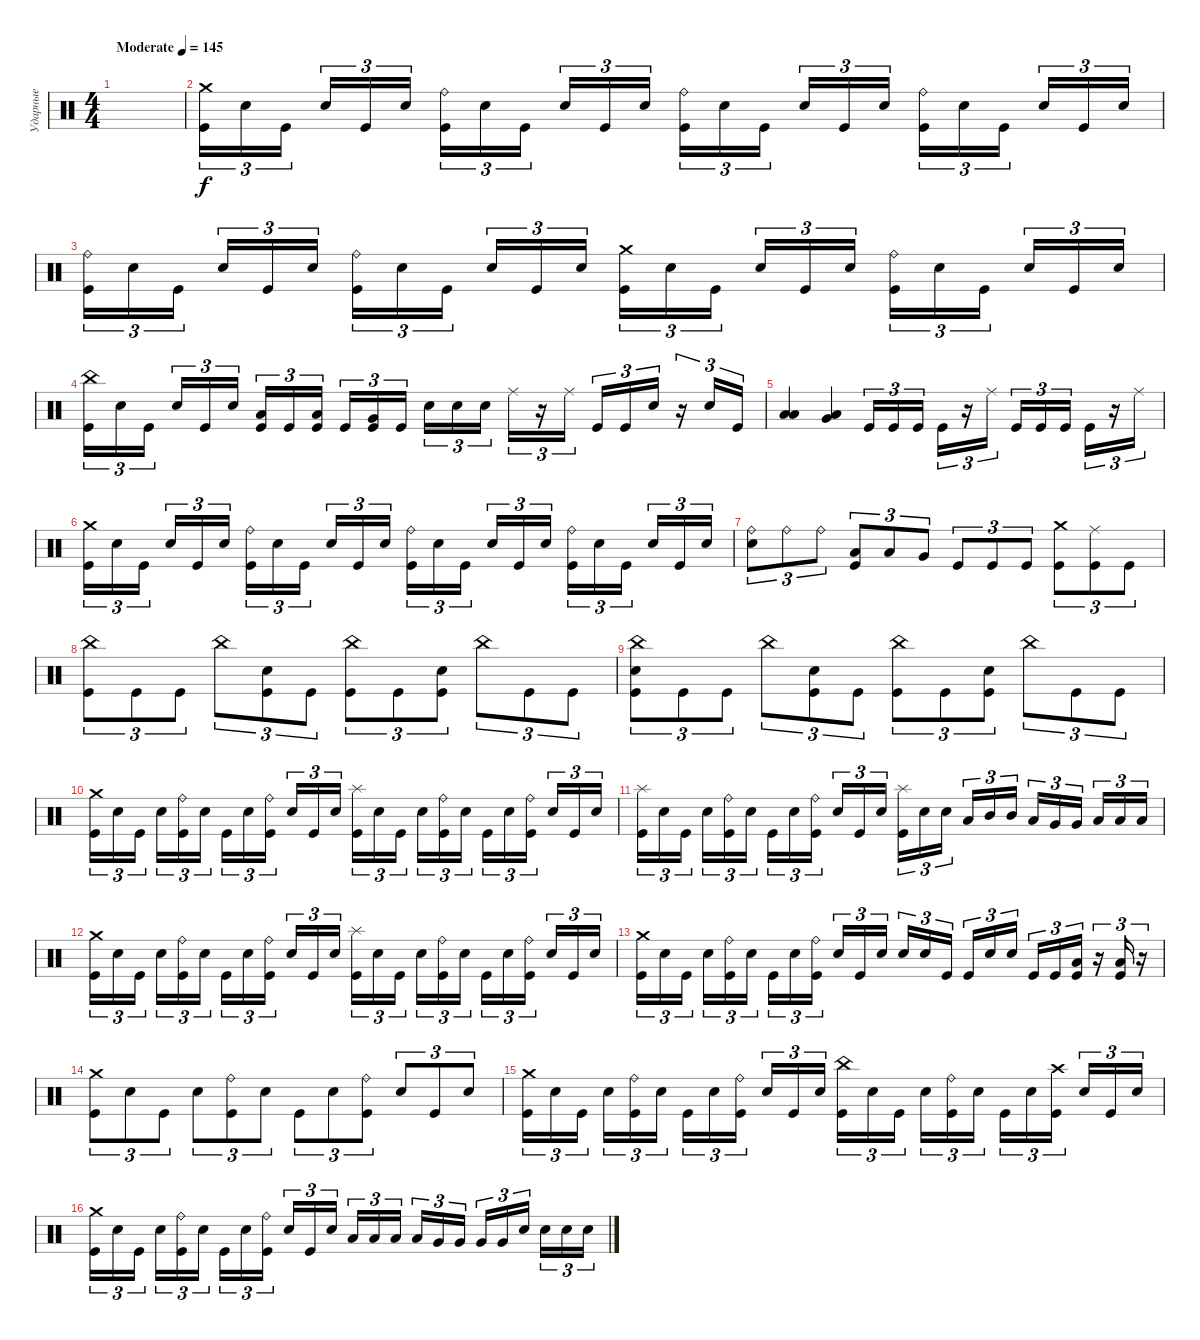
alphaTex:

\track ("Ударные" "Ударные") {instrument percussion}
\staff {score}
\articulation defaults
\ts (4 4)
\tempo (145 "Moderate")
\clef neutral
\ks c
|
("Crash medium (hit)" "Kick (hit)").16{tu (3 2)} "Electric Snare (hit)".16{tu (3 2)} "Kick (hit)".16{tu (3 2) beam splitsecondary} "Electric Snare (hit)".16{tu (3 2)} "Kick (hit)".16{tu (3 2)} "Electric Snare (hit)".16{tu (3 2)} ("Ride (bell)" "Kick (hit)").16{tu (3 2)} "Electric Snare (hit)".16{tu (3 2)} "Kick (hit)".16{tu (3 2) beam splitsecondary} "Electric Snare (hit)".16{tu (3 2)} "Kick (hit)".16{tu (3 2)} "Electric Snare (hit)".16{tu (3 2)} ("Ride (bell)" "Kick (hit)").16{tu (3 2)} "Electric Snare (hit)".16{tu (3 2)} "Kick (hit)".16{tu (3 2) beam splitsecondary} "Electric Snare (hit)".16{tu (3 2)} "Kick (hit)".16{tu (3 2)} "Electric Snare (hit)".16{tu (3 2)} ("Ride (bell)" "Kick (hit)").16{tu (3 2)} "Electric Snare (hit)".16{tu (3 2)} "Kick (hit)".16{tu (3 2) beam splitsecondary} "Electric Snare (hit)".16{tu (3 2)} "Kick (hit)".16{tu (3 2)} "Electric Snare (hit)".16{tu (3 2)} |
("Ride (bell)" "Kick (hit)").16{tu (3 2)} "Electric Snare (hit)".16{tu (3 2)} "Kick (hit)".16{tu (3 2) beam splitsecondary} "Electric Snare (hit)".16{tu (3 2)} "Kick (hit)".16{tu (3 2)} "Electric Snare (hit)".16{tu (3 2)} ("Ride (bell)" "Kick (hit)").16{tu (3 2)} "Electric Snare (hit)".16{tu (3 2)} "Kick (hit)".16{tu (3 2) beam splitsecondary} "Electric Snare (hit)".16{tu (3 2)} "Kick (hit)".16{tu (3 2)} "Electric Snare (hit)".16{tu (3 2)} ("Crash medium (hit)" "Kick (hit)").16{tu (3 2)} "Electric Snare (hit)".16{tu (3 2)} "Kick (hit)".16{tu (3 2) beam splitsecondary} "Electric Snare (hit)".16{tu (3 2)} "Kick (hit)".16{tu (3 2)} "Electric Snare (hit)".16{tu (3 2)} ("Ride (bell)" "Kick (hit)").16{tu (3 2)} "Electric Snare (hit)".16{tu (3 2)} "Kick (hit)".16{tu (3 2) beam splitsecondary} "Electric Snare (hit)".16{tu (3 2)} "Kick (hit)".16{tu (3 2)} "Electric Snare (hit)".16{tu (3 2)} |
("China (hit)" "Kick (hit)").16{tu (3 2)} "Electric Snare (hit)".16{tu (3 2)} "Kick (hit)".16{tu (3 2) beam splitsecondary} "Electric Snare (hit)".16{tu (3 2)} "Kick (hit)".16{tu (3 2)} "Electric Snare (hit)".16{tu (3 2)} ("Low Tom (hit)" "Kick (hit)").16{tu (3 2)} "Kick (hit)".16{tu (3 2)} ("Low Tom (hit)" "Kick (hit)").16{tu (3 2) beam splitsecondary} "Kick (hit)".16{tu (3 2)} ("Very Low Tom (hit)" "Kick (hit)").16{tu (3 2)} "Kick (hit)".16{tu (3 2)} "Electric Snare (hit)".16{tu (3 2)} "Electric Snare (hit)".16{tu (3 2)} "Electric Snare (hit)".16{tu (3 2) beam splitsecondary} "Ride (middle)".16{tu (3 2)} r.16{tu (3 2)} "Ride (middle)".16{tu (3 2)} "Kick (hit)".16{tu (3 2)} "Kick (hit)".16{tu (3 2)} "Electric Snare (hit)".16{tu (3 2)} r.16{tu (3 2)} "Electric Snare (hit)".16{tu (3 2)} "Kick (hit)".16{tu (3 2)} |
("Low Tom (hit)" "Low Floor Tom (hit)").4 ("Very Low Tom (hit)" "Low Floor Tom (hit)").4 "Kick (hit)".16{tu (3 2)} "Kick (hit)".16{tu (3 2)} "Kick (hit)".16{tu (3 2) beam splitsecondary} "Kick (hit)".16{tu (3 2)} r.16{tu (3 2)} "Ride (middle)".16{tu (3 2)} "Kick (hit)".16{tu (3 2)} "Kick (hit)".16{tu (3 2)} "Kick (hit)".16{tu (3 2) beam splitsecondary} "Kick (hit)".16{tu (3 2)} r.16{tu (3 2)} "Ride (middle)".16{tu (3 2)} |
("Crash medium (hit)" "Kick (hit)").16{tu (3 2)} "Electric Snare (hit)".16{tu (3 2)} "Kick (hit)".16{tu (3 2) beam splitsecondary} "Electric Snare (hit)".16{tu (3 2)} "Kick (hit)".16{tu (3 2)} "Electric Snare (hit)".16{tu (3 2)} ("Ride (bell)" "Kick (hit)").16{tu (3 2)} "Electric Snare (hit)".16{tu (3 2)} "Kick (hit)".16{tu (3 2) beam splitsecondary} "Electric Snare (hit)".16{tu (3 2)} "Kick (hit)".16{tu (3 2)} "Electric Snare (hit)".16{tu (3 2)} ("Ride (bell)" "Kick (hit)").16{tu (3 2)} "Electric Snare (hit)".16{tu (3 2)} "Kick (hit)".16{tu (3 2) beam splitsecondary} "Electric Snare (hit)".16{tu (3 2)} "Kick (hit)".16{tu (3 2)} "Electric Snare (hit)".16{tu (3 2)} ("Ride (bell)" "Kick (hit)").16{tu (3 2)} "Electric Snare (hit)".16{tu (3 2)} "Kick (hit)".16{tu (3 2) beam splitsecondary} "Electric Snare (hit)".16{tu (3 2)} "Kick (hit)".16{tu (3 2)} "Electric Snare (hit)".16{tu (3 2)} |
("Ride (bell)" "Electric Snare (hit)").8{tu (3 2)} "Ride (bell)".8{tu (3 2)} "Ride (bell)".8{tu (3 2)} ("Low Tom (hit)" "Kick (hit)").8{tu (3 2)} "Low Tom (hit)".8{tu (3 2)} "Very Low Tom (hit)".8{tu (3 2)} "Kick (hit)".8{tu (3 2)} "Kick (hit)".8{tu (3 2)} "Kick (hit)".8{tu (3 2)} ("Crash medium (hit)" "Kick (hit)").8{tu (3 2)} ("Ride (middle)" "Kick (hit)").8{tu (3 2)} "Kick (hit)".8{tu (3 2)} |
("China (hit)" "Kick (hit)").8{tu (3 2)} "Kick (hit)".8{tu (3 2)} "Kick (hit)".8{tu (3 2)} "China (hit)".8{tu (3 2)} ("Electric Snare (hit)" "Kick (hit)").8{tu (3 2)} "Kick (hit)".8{tu (3 2)} ("China (hit)" "Kick (hit)").8{tu (3 2)} "Kick (hit)".8{tu (3 2)} ("Electric Snare (hit)" "Kick (hit)").8{tu (3 2)} "China (hit)".8{tu (3 2)} "Kick (hit)".8{tu (3 2)} "Kick (hit)".8{tu (3 2)} |
("China (hit)" "Electric Snare (hit)" "Kick (hit)").8{tu (3 2)} "Kick (hit)".8{tu (3 2)} "Kick (hit)".8{tu (3 2)} "China (hit)".8{tu (3 2)} ("Electric Snare (hit)" "Kick (hit)").8{tu (3 2)} "Kick (hit)".8{tu (3 2)} ("China (hit)" "Kick (hit)").8{tu (3 2)} "Kick (hit)".8{tu (3 2)} ("Electric Snare (hit)" "Kick (hit)").8{tu (3 2)} "China (hit)".8{tu (3 2)} "Kick (hit)".8{tu (3 2)} "Kick (hit)".8{tu (3 2)} |
("Crash medium (hit)" "Kick (hit)").16{tu (3 2)} "Electric Snare (hit)".16{tu (3 2)} "Kick (hit)".16{tu (3 2) beam splitsecondary} "Electric Snare (hit)".16{tu (3 2)} ("Ride (bell)" "Kick (hit)").16{tu (3 2)} "Electric Snare (hit)".16{tu (3 2)} "Kick (hit)".16{tu (3 2)} "Electric Snare (hit)".16{tu (3 2)} ("Ride (bell)" "Kick (hit)").16{tu (3 2) beam splitsecondary} "Electric Snare (hit)".16{tu (3 2)} "Kick (hit)".16{tu (3 2)} "Electric Snare (hit)".16{tu (3 2)} ("Splash (hit)" "Kick (hit)").16{tu (3 2)} "Electric Snare (hit)".16{tu (3 2)} "Kick (hit)".16{tu (3 2) beam splitsecondary} "Electric Snare (hit)".16{tu (3 2)} ("Ride (bell)" "Kick (hit)").16{tu (3 2)} "Electric Snare (hit)".16{tu (3 2)} "Kick (hit)".16{tu (3 2)} "Electric Snare (hit)".16{tu (3 2)} ("Ride (bell)" "Kick (hit)").16{tu (3 2) beam splitsecondary} "Electric Snare (hit)".16{tu (3 2)} "Kick (hit)".16{tu (3 2)} "Electric Snare (hit)".16{tu (3 2)} |
("Splash (hit)" "Kick (hit)").16{tu (3 2)} "Electric Snare (hit)".16{tu (3 2)} "Kick (hit)".16{tu (3 2) beam splitsecondary} "Electric Snare (hit)".16{tu (3 2)} ("Ride (bell)" "Kick (hit)").16{tu (3 2)} "Electric Snare (hit)".16{tu (3 2)} "Kick (hit)".16{tu (3 2)} "Electric Snare (hit)".16{tu (3 2)} ("Ride (bell)" "Kick (hit)").16{tu (3 2) beam splitsecondary} "Electric Snare (hit)".16{tu (3 2)} "Kick (hit)".16{tu (3 2)} "Electric Snare (hit)".16{tu (3 2)} ("Splash (hit)" "Kick (hit)").16{tu (3 2)} "Electric Snare (hit)".16{tu (3 2)} "Electric Snare (hit)".16{tu (3 2) beam splitsecondary} "Low Tom (hit)".16{tu (3 2)} "Mid Tom (hit)".16{tu (3 2)} "Mid Tom (hit)".16{tu (3 2)} "Low Tom (hit)".16{tu (3 2)} "Very Low Tom (hit)".16{tu (3 2)} "Very Low Tom (hit)".16{tu (3 2) beam splitsecondary} "Low Floor Tom (hit)".16{tu (3 2)} "Low Floor Tom (hit)".16{tu (3 2)} "Low Floor Tom (hit)".16{tu (3 2)} |
("Crash medium (hit)" "Kick (hit)").16{tu (3 2)} "Electric Snare (hit)".16{tu (3 2)} "Kick (hit)".16{tu (3 2) beam splitsecondary} "Electric Snare (hit)".16{tu (3 2)} ("Ride (bell)" "Kick (hit)").16{tu (3 2)} "Electric Snare (hit)".16{tu (3 2)} "Kick (hit)".16{tu (3 2)} "Electric Snare (hit)".16{tu (3 2)} ("Ride (bell)" "Kick (hit)").16{tu (3 2) beam splitsecondary} "Electric Snare (hit)".16{tu (3 2)} "Kick (hit)".16{tu (3 2)} "Electric Snare (hit)".16{tu (3 2)} ("Splash (hit)" "Kick (hit)").16{tu (3 2)} "Electric Snare (hit)".16{tu (3 2)} "Kick (hit)".16{tu (3 2) beam splitsecondary} "Electric Snare (hit)".16{tu (3 2)} ("Ride (bell)" "Kick (hit)").16{tu (3 2)} "Electric Snare (hit)".16{tu (3 2)} "Kick (hit)".16{tu (3 2)} "Electric Snare (hit)".16{tu (3 2)} ("Ride (bell)" "Kick (hit)").16{tu (3 2) beam splitsecondary} "Electric Snare (hit)".16{tu (3 2)} "Kick (hit)".16{tu (3 2)} "Electric Snare (hit)".16{tu (3 2)} |
("Crash medium (hit)" "Kick (hit)").16{tu (3 2)} "Electric Snare (hit)".16{tu (3 2)} "Kick (hit)".16{tu (3 2) beam splitsecondary} "Electric Snare (hit)".16{tu (3 2)} ("Ride (bell)" "Kick (hit)").16{tu (3 2)} "Electric Snare (hit)".16{tu (3 2)} "Kick (hit)".16{tu (3 2)} "Electric Snare (hit)".16{tu (3 2)} ("Ride (bell)" "Kick (hit)").16{tu (3 2) beam splitsecondary} "Electric Snare (hit)".16{tu (3 2)} "Kick (hit)".16{tu (3 2)} "Electric Snare (hit)".16{tu (3 2)} "Electric Snare (hit)".16{tu (3 2)} "Electric Snare (hit)".16{tu (3 2)} "Kick (hit)".16{tu (3 2) beam splitsecondary} "Kick (hit)".16{tu (3 2)} "Electric Snare (hit)".16{tu (3 2)} "Electric Snare (hit)".16{tu (3 2)} "Kick (hit)".16{tu (3 2)} "Kick (hit)".16{tu (3 2)} ("Low Floor Tom (hit)" "Kick (hit)").16{tu (3 2)} r.16{tu (3 2)} ("Low Floor Tom (hit)" "Kick (hit)").16{tu (3 2)} r.16{tu (3 2)} |
("Crash medium (hit)" "Kick (hit)").8{tu (3 2)} "Electric Snare (hit)".8{tu (3 2)} "Kick (hit)".8{tu (3 2)} "Electric Snare (hit)".8{tu (3 2)} ("Ride (bell)" "Kick (hit)").8{tu (3 2)} "Electric Snare (hit)".8{tu (3 2)} "Kick (hit)".8{tu (3 2)} "Electric Snare (hit)".8{tu (3 2)} ("Ride (bell)" "Kick (hit)").8{tu (3 2)} "Electric Snare (hit)".8{tu (3 2)} "Kick (hit)".8{tu (3 2)} "Electric Snare (hit)".8{tu (3 2)} |
("Crash medium (hit)" "Kick (hit)").16{tu (3 2)} "Electric Snare (hit)".16{tu (3 2)} "Kick (hit)".16{tu (3 2) beam splitsecondary} "Electric Snare (hit)".16{tu (3 2)} ("Ride (bell)" "Kick (hit)").16{tu (3 2)} "Electric Snare (hit)".16{tu (3 2)} "Kick (hit)".16{tu (3 2)} "Electric Snare (hit)".16{tu (3 2)} ("Ride (bell)" "Kick (hit)").16{tu (3 2) beam splitsecondary} "Electric Snare (hit)".16{tu (3 2)} "Kick (hit)".16{tu (3 2)} "Electric Snare (hit)".16{tu (3 2)} ("China (hit)" "Kick (hit)").16{tu (3 2)} "Electric Snare (hit)".16{tu (3 2)} "Kick (hit)".16{tu (3 2) beam splitsecondary} "Electric Snare (hit)".16{tu (3 2)} ("Ride (bell)" "Kick (hit)").16{tu (3 2)} "Electric Snare (hit)".16{tu (3 2)} "Kick (hit)".16{tu (3 2)} "Electric Snare (hit)".16{tu (3 2)} ("Crash high (hit)" "Kick (hit)").16{tu (3 2) beam splitsecondary} "Electric Snare (hit)".16{tu (3 2)} "Kick (hit)".16{tu (3 2)} "Electric Snare (hit)".16{tu (3 2)} |
("Crash medium (hit)" "Kick (hit)").16{tu (3 2)} "Electric Snare (hit)".16{tu (3 2)} "Kick (hit)".16{tu (3 2) beam splitsecondary} "Electric Snare (hit)".16{tu (3 2)} ("Ride (bell)" "Kick (hit)").16{tu (3 2)} "Electric Snare (hit)".16{tu (3 2)} "Kick (hit)".16{tu (3 2)} "Electric Snare (hit)".16{tu (3 2)} ("Ride (bell)" "Kick (hit)").16{tu (3 2) beam splitsecondary} "Electric Snare (hit)".16{tu (3 2)} "Kick (hit)".16{tu (3 2)} "Electric Snare (hit)".16{tu (3 2)} "Low Tom (hit)".16{tu (3 2)} "Low Tom (hit)".16{tu (3 2)} "Low Tom (hit)".16{tu (3 2) beam splitsecondary} "Low Tom (hit)".16{tu (3 2)} "Very Low Tom (hit)".16{tu (3 2)} "Very Low Tom (hit)".16{tu (3 2)} "Very Low Tom (hit)".16{tu (3 2)} "Very Low Tom (hit)".16{tu (3 2)} "Electric Snare (hit)".16{tu (3 2) beam splitsecondary} "Electric Snare (hit)".16{tu (3 2)} "Electric Snare (hit)".16{tu (3 2)} "Electric Snare (hit)".16{tu (3 2)}
